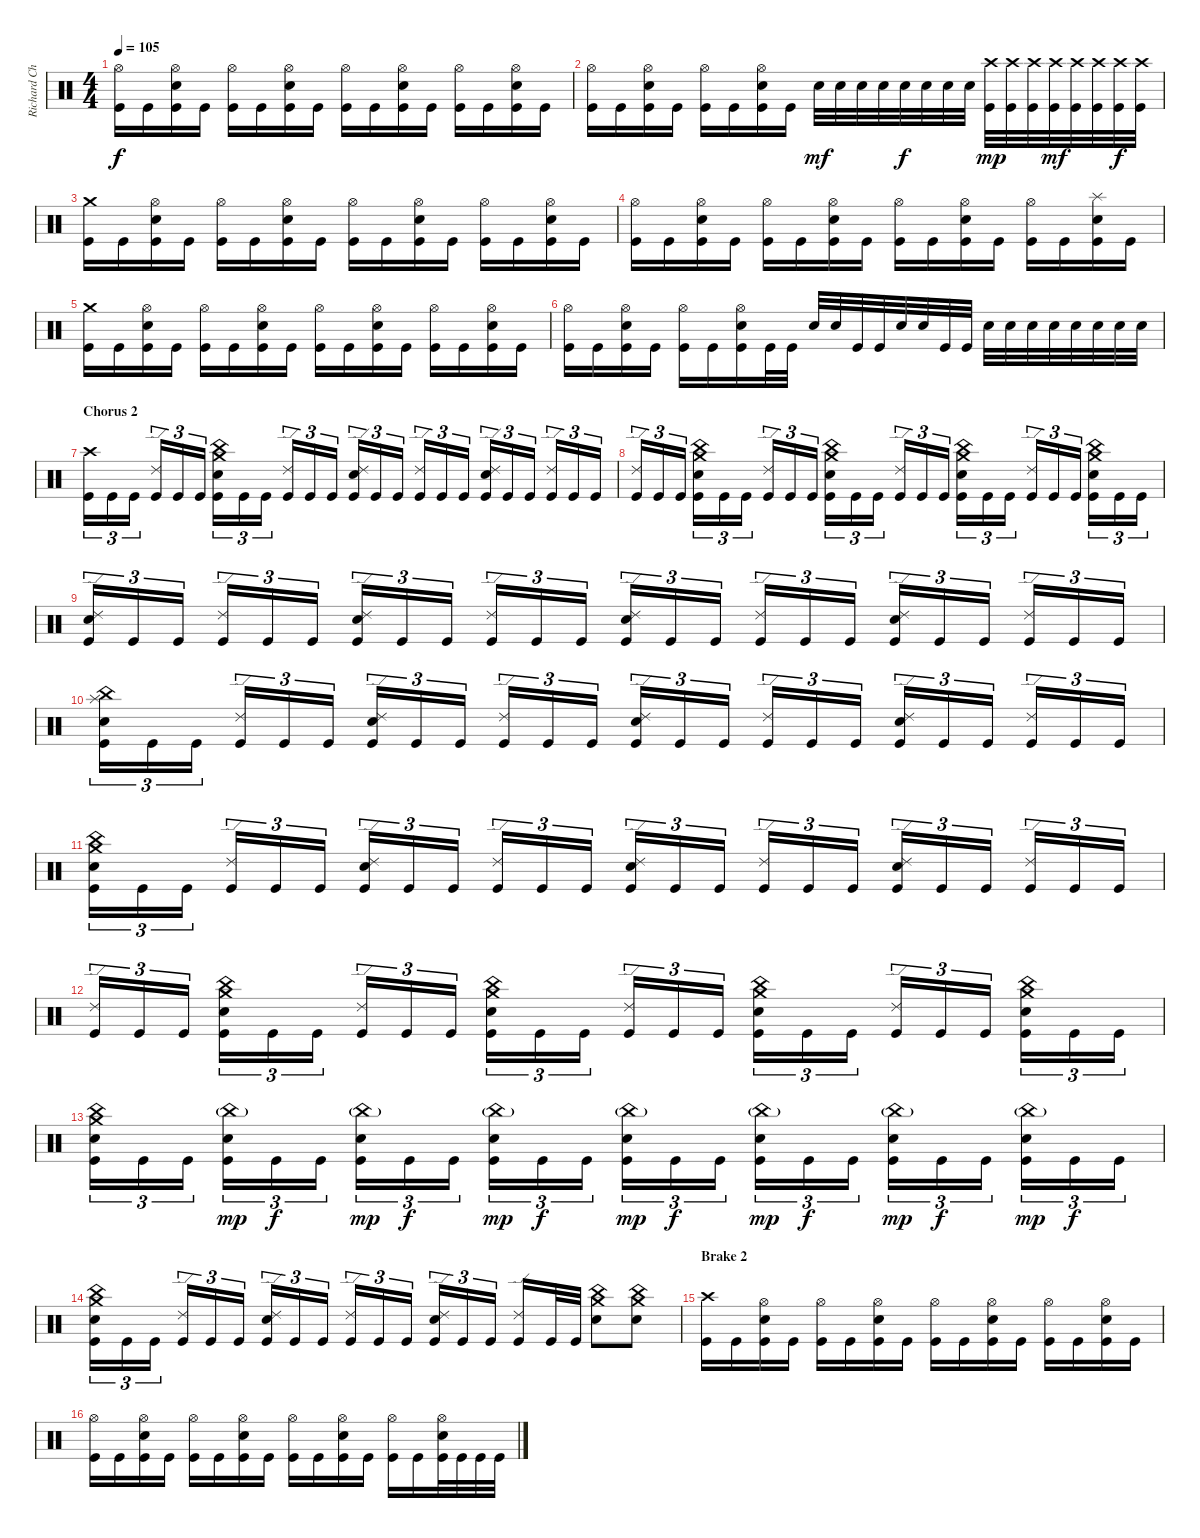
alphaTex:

\track ("Richard Christy" "Richard Ch") {instrument percussion}
\staff {score}
\articulation defaults
\ts (4 4)
\tempo 105
\clef neutral
\ks c
("Hi-Hat (open)" "Kick (hit)").16{dy f} "Kick (hit)".16 ("Hi-Hat (open)" "Electric Snare (hit)" "Kick (hit)").16 "Kick (hit)".16 ("Hi-Hat (open)" "Kick (hit)").16 "Kick (hit)".16 ("Hi-Hat (open)" "Electric Snare (hit)" "Kick (hit)").16 "Kick (hit)".16 ("Hi-Hat (open)" "Kick (hit)").16 "Kick (hit)".16 ("Hi-Hat (open)" "Electric Snare (hit)" "Kick (hit)").16 "Kick (hit)".16 ("Hi-Hat (open)" "Kick (hit)").16 "Kick (hit)".16 ("Hi-Hat (open)" "Electric Snare (hit)" "Kick (hit)").16 "Kick (hit)".16 |
("Hi-Hat (open)" "Kick (hit)").16 "Kick (hit)".16 ("Hi-Hat (open)" "Electric Snare (hit)" "Kick (hit)").16 "Kick (hit)".16 ("Hi-Hat (open)" "Kick (hit)").16 "Kick (hit)".16 ("Hi-Hat (open)" "Electric Snare (hit)" "Kick (hit)").16 "Kick (hit)".16 "Electric Snare (hit)".32{dy mf} "Electric Snare (hit)".32 "Electric Snare (hit)".32 "Electric Snare (hit)".32 "Electric Snare (hit)".32{dy f} "Electric Snare (hit)".32 "Electric Snare (hit)".32 "Electric Snare (hit)".32 ("Crash high (hit)" "Kick (hit)").32{dy mp} ("Crash high (hit)" "Kick (hit)").32 ("Crash high (hit)" "Kick (hit)").32 ("Crash high (hit)" "Kick (hit)").32{dy mf} ("Crash high (hit)" "Kick (hit)").32 ("Crash high (hit)" "Kick (hit)").32 ("Crash high (hit)" "Kick (hit)").32{dy f} ("Crash high (hit)" "Kick (hit)").32 |
("Crash medium (hit)" "Kick (hit)").16 "Kick (hit)".16 ("Hi-Hat (open)" "Electric Snare (hit)" "Kick (hit)").16 "Kick (hit)".16 ("Hi-Hat (open)" "Kick (hit)").16 "Kick (hit)".16 ("Hi-Hat (open)" "Electric Snare (hit)" "Kick (hit)").16 "Kick (hit)".16 ("Hi-Hat (open)" "Kick (hit)").16 "Kick (hit)".16 ("Hi-Hat (open)" "Electric Snare (hit)" "Kick (hit)").16 "Kick (hit)".16 ("Hi-Hat (open)" "Kick (hit)").16 "Kick (hit)".16 ("Hi-Hat (open)" "Electric Snare (hit)" "Kick (hit)").16 "Kick (hit)".16 |
("Hi-Hat (open)" "Kick (hit)").16 "Kick (hit)".16 ("Hi-Hat (open)" "Electric Snare (hit)" "Kick (hit)").16 "Kick (hit)".16 ("Hi-Hat (open)" "Kick (hit)").16 "Kick (hit)".16 ("Hi-Hat (open)" "Electric Snare (hit)" "Kick (hit)").16 "Kick (hit)".16 ("Hi-Hat (open)" "Kick (hit)").16 "Kick (hit)".16 ("Hi-Hat (open)" "Electric Snare (hit)" "Kick (hit)").16 "Kick (hit)".16 ("Hi-Hat (open)" "Kick (hit)").16 "Kick (hit)".16 ("Splash (hit)" "Electric Snare (hit)" "Kick (hit)").16 "Kick (hit)".16 |
("Crash medium (hit)" "Kick (hit)").16 "Kick (hit)".16 ("Hi-Hat (open)" "Electric Snare (hit)" "Kick (hit)").16 "Kick (hit)".16 ("Hi-Hat (open)" "Kick (hit)").16 "Kick (hit)".16 ("Hi-Hat (open)" "Electric Snare (hit)" "Kick (hit)").16 "Kick (hit)".16 ("Hi-Hat (open)" "Kick (hit)").16 "Kick (hit)".16 ("Hi-Hat (open)" "Electric Snare (hit)" "Kick (hit)").16 "Kick (hit)".16 ("Hi-Hat (open)" "Kick (hit)").16 "Kick (hit)".16 ("Hi-Hat (open)" "Electric Snare (hit)" "Kick (hit)").16 "Kick (hit)".16 |
("Hi-Hat (open)" "Kick (hit)").16 "Kick (hit)".16 ("Hi-Hat (open)" "Electric Snare (hit)" "Kick (hit)").16 "Kick (hit)".16 ("Hi-Hat (open)" "Kick (hit)").16 "Kick (hit)".16 ("Hi-Hat (open)" "Electric Snare (hit)" "Kick (hit)").16 "Kick (hit)".32 "Kick (hit)".32 "Electric Snare (hit)".32 "Electric Snare (hit)".32 "Kick (hit)".32 "Kick (hit)".32 "Electric Snare (hit)".32 "Electric Snare (hit)".32 "Kick (hit)".32 "Kick (hit)".32 "Electric Snare (hit)".32 "Electric Snare (hit)".32 "Electric Snare (hit)".32 "Electric Snare (hit)".32 "Electric Snare (hit)".32 "Electric Snare (hit)".32 "Electric Snare (hit)".32 "Electric Snare (hit)".32 |
\section ("" "Chorus 2")
("Crash high (hit)" "Kick (hit)").16{tu (3 2)} "Kick (hit)".16{tu (3 2)} "Kick (hit)".16{tu (3 2)} ("Ride (edge) 2" "Kick (hit)").16{tu (3 2)} "Kick (hit)".16{tu (3 2)} "Kick (hit)".16{tu (3 2)} ("Crash medium (hit)" "China (hit)" "Electric Snare (hit)" "Kick (hit)").16{tu (3 2)} "Kick (hit)".16{tu (3 2)} "Kick (hit)".16{tu (3 2)} ("Ride (edge) 2" "Kick (hit)").16{tu (3 2)} "Kick (hit)".16{tu (3 2)} "Kick (hit)".16{tu (3 2)} ("Ride (edge) 2" "Electric Snare (hit)" "Kick (hit)").16{tu (3 2)} "Kick (hit)".16{tu (3 2)} "Kick (hit)".16{tu (3 2)} ("Ride (edge) 2" "Kick (hit)").16{tu (3 2)} "Kick (hit)".16{tu (3 2)} "Kick (hit)".16{tu (3 2)} ("Ride (edge) 2" "Electric Snare (hit)" "Kick (hit)").16{tu (3 2)} "Kick (hit)".16{tu (3 2)} "Kick (hit)".16{tu (3 2)} ("Ride (edge) 2" "Kick (hit)").16{tu (3 2)} "Kick (hit)".16{tu (3 2)} "Kick (hit)".16{tu (3 2)} |
("Ride (edge) 2" "Kick (hit)").16{tu (3 2)} "Kick (hit)".16{tu (3 2)} "Kick (hit)".16{tu (3 2)} ("Crash medium (hit)" "China (hit)" "Electric Snare (hit)" "Kick (hit)").16{tu (3 2)} "Kick (hit)".16{tu (3 2)} "Kick (hit)".16{tu (3 2)} ("Ride (edge) 2" "Kick (hit)").16{tu (3 2)} "Kick (hit)".16{tu (3 2)} "Kick (hit)".16{tu (3 2)} ("Crash medium (hit)" "China (hit)" "Electric Snare (hit)" "Kick (hit)").16{tu (3 2)} "Kick (hit)".16{tu (3 2)} "Kick (hit)".16{tu (3 2)} ("Ride (edge) 2" "Kick (hit)").16{tu (3 2)} "Kick (hit)".16{tu (3 2)} "Kick (hit)".16{tu (3 2)} ("Crash medium (hit)" "China (hit)" "Electric Snare (hit)" "Kick (hit)").16{tu (3 2)} "Kick (hit)".16{tu (3 2)} "Kick (hit)".16{tu (3 2)} ("Ride (edge) 2" "Kick (hit)").16{tu (3 2)} "Kick (hit)".16{tu (3 2)} "Kick (hit)".16{tu (3 2)} ("Crash medium (hit)" "China (hit)" "Electric Snare (hit)" "Kick (hit)").16{tu (3 2)} "Kick (hit)".16{tu (3 2)} "Kick (hit)".16{tu (3 2)} |
("Ride (edge) 2" "Electric Snare (hit)" "Kick (hit)").16{tu (3 2)} "Kick (hit)".16{tu (3 2)} "Kick (hit)".16{tu (3 2)} ("Ride (edge) 2" "Kick (hit)").16{tu (3 2)} "Kick (hit)".16{tu (3 2)} "Kick (hit)".16{tu (3 2)} ("Ride (edge) 2" "Electric Snare (hit)" "Kick (hit)").16{tu (3 2)} "Kick (hit)".16{tu (3 2)} "Kick (hit)".16{tu (3 2)} ("Ride (edge) 2" "Kick (hit)").16{tu (3 2)} "Kick (hit)".16{tu (3 2)} "Kick (hit)".16{tu (3 2)} ("Ride (edge) 2" "Electric Snare (hit)" "Kick (hit)").16{tu (3 2)} "Kick (hit)".16{tu (3 2)} "Kick (hit)".16{tu (3 2)} ("Ride (edge) 2" "Kick (hit)").16{tu (3 2)} "Kick (hit)".16{tu (3 2)} "Kick (hit)".16{tu (3 2)} ("Ride (edge) 2" "Electric Snare (hit)" "Kick (hit)").16{tu (3 2)} "Kick (hit)".16{tu (3 2)} "Kick (hit)".16{tu (3 2)} ("Ride (edge) 2" "Kick (hit)").16{tu (3 2)} "Kick (hit)".16{tu (3 2)} "Kick (hit)".16{tu (3 2)} |
("Splash (hit)" "China (hit)" "Electric Snare (hit)" "Kick (hit)").16{tu (3 2)} "Kick (hit)".16{tu (3 2)} "Kick (hit)".16{tu (3 2)} ("Ride (edge) 2" "Kick (hit)").16{tu (3 2)} "Kick (hit)".16{tu (3 2)} "Kick (hit)".16{tu (3 2)} ("Ride (edge) 2" "Electric Snare (hit)" "Kick (hit)").16{tu (3 2)} "Kick (hit)".16{tu (3 2)} "Kick (hit)".16{tu (3 2)} ("Ride (edge) 2" "Kick (hit)").16{tu (3 2)} "Kick (hit)".16{tu (3 2)} "Kick (hit)".16{tu (3 2)} ("Ride (edge) 2" "Electric Snare (hit)" "Kick (hit)").16{tu (3 2)} "Kick (hit)".16{tu (3 2)} "Kick (hit)".16{tu (3 2)} ("Ride (edge) 2" "Kick (hit)").16{tu (3 2)} "Kick (hit)".16{tu (3 2)} "Kick (hit)".16{tu (3 2)} ("Ride (edge) 2" "Electric Snare (hit)" "Kick (hit)").16{tu (3 2)} "Kick (hit)".16{tu (3 2)} "Kick (hit)".16{tu (3 2)} ("Ride (edge) 2" "Kick (hit)").16{tu (3 2)} "Kick (hit)".16{tu (3 2)} "Kick (hit)".16{tu (3 2)} |
("Crash medium (hit)" "China (hit)" "Electric Snare (hit)" "Kick (hit)").16{tu (3 2)} "Kick (hit)".16{tu (3 2)} "Kick (hit)".16{tu (3 2)} ("Ride (edge) 2" "Kick (hit)").16{tu (3 2)} "Kick (hit)".16{tu (3 2)} "Kick (hit)".16{tu (3 2)} ("Ride (edge) 2" "Electric Snare (hit)" "Kick (hit)").16{tu (3 2)} "Kick (hit)".16{tu (3 2)} "Kick (hit)".16{tu (3 2)} ("Ride (edge) 2" "Kick (hit)").16{tu (3 2)} "Kick (hit)".16{tu (3 2)} "Kick (hit)".16{tu (3 2)} ("Ride (edge) 2" "Electric Snare (hit)" "Kick (hit)").16{tu (3 2)} "Kick (hit)".16{tu (3 2)} "Kick (hit)".16{tu (3 2)} ("Ride (edge) 2" "Kick (hit)").16{tu (3 2)} "Kick (hit)".16{tu (3 2)} "Kick (hit)".16{tu (3 2)} ("Ride (edge) 2" "Electric Snare (hit)" "Kick (hit)").16{tu (3 2)} "Kick (hit)".16{tu (3 2)} "Kick (hit)".16{tu (3 2)} ("Ride (edge) 2" "Kick (hit)").16{tu (3 2)} "Kick (hit)".16{tu (3 2)} "Kick (hit)".16{tu (3 2)} |
("Ride (edge) 2" "Kick (hit)").16{tu (3 2)} "Kick (hit)".16{tu (3 2)} "Kick (hit)".16{tu (3 2)} ("Crash medium (hit)" "China (hit)" "Electric Snare (hit)" "Kick (hit)").16{tu (3 2)} "Kick (hit)".16{tu (3 2)} "Kick (hit)".16{tu (3 2)} ("Ride (edge) 2" "Kick (hit)").16{tu (3 2)} "Kick (hit)".16{tu (3 2)} "Kick (hit)".16{tu (3 2)} ("Crash medium (hit)" "China (hit)" "Electric Snare (hit)" "Kick (hit)").16{tu (3 2)} "Kick (hit)".16{tu (3 2)} "Kick (hit)".16{tu (3 2)} ("Ride (edge) 2" "Kick (hit)").16{tu (3 2)} "Kick (hit)".16{tu (3 2)} "Kick (hit)".16{tu (3 2)} ("Crash medium (hit)" "China (hit)" "Electric Snare (hit)" "Kick (hit)").16{tu (3 2)} "Kick (hit)".16{tu (3 2)} "Kick (hit)".16{tu (3 2)} ("Ride (edge) 2" "Kick (hit)").16{tu (3 2)} "Kick (hit)".16{tu (3 2)} "Kick (hit)".16{tu (3 2)} ("Crash medium (hit)" "China (hit)" "Electric Snare (hit)" "Kick (hit)").16{tu (3 2)} "Kick (hit)".16{tu (3 2)} "Kick (hit)".16{tu (3 2)} |
("Crash medium (hit)" "China (hit)" "Electric Snare (hit)" "Kick (hit)").16{tu (3 2)} "Kick (hit)".16{tu (3 2)} "Kick (hit)".16{tu (3 2)} ("China (hit)"{g} "Electric Snare (hit)" "Kick (hit)").16{tu (3 2) dy mp} "Kick (hit)".16{tu (3 2) dy f} "Kick (hit)".16{tu (3 2)} ("China (hit)"{g} "Electric Snare (hit)" "Kick (hit)").16{tu (3 2) dy mp} "Kick (hit)".16{tu (3 2) dy f} "Kick (hit)".16{tu (3 2)} ("China (hit)"{g} "Electric Snare (hit)" "Kick (hit)").16{tu (3 2) dy mp} "Kick (hit)".16{tu (3 2) dy f} "Kick (hit)".16{tu (3 2)} ("China (hit)"{g} "Electric Snare (hit)" "Kick (hit)").16{tu (3 2) dy mp} "Kick (hit)".16{tu (3 2) dy f} "Kick (hit)".16{tu (3 2)} ("China (hit)"{g} "Electric Snare (hit)" "Kick (hit)").16{tu (3 2) dy mp} "Kick (hit)".16{tu (3 2) dy f} "Kick (hit)".16{tu (3 2)} ("China (hit)"{g} "Electric Snare (hit)" "Kick (hit)").16{tu (3 2) dy mp} "Kick (hit)".16{tu (3 2) dy f} "Kick (hit)".16{tu (3 2)} ("China (hit)"{g} "Electric Snare (hit)" "Kick (hit)").16{tu (3 2) dy mp} "Kick (hit)".16{tu (3 2) dy f} "Kick (hit)".16{tu (3 2)} |
("Crash medium (hit)" "China (hit)" "Electric Snare (hit)" "Kick (hit)").16{tu (3 2)} "Kick (hit)".16{tu (3 2)} "Kick (hit)".16{tu (3 2)} ("Ride (edge) 2" "Kick (hit)").16{tu (3 2)} "Kick (hit)".16{tu (3 2)} "Kick (hit)".16{tu (3 2)} ("Ride (edge) 2" "Electric Snare (hit)" "Kick (hit)").16{tu (3 2)} "Kick (hit)".16{tu (3 2)} "Kick (hit)".16{tu (3 2)} ("Ride (edge) 2" "Kick (hit)").16{tu (3 2)} "Kick (hit)".16{tu (3 2)} "Kick (hit)".16{tu (3 2)} ("Ride (edge) 2" "Electric Snare (hit)" "Kick (hit)").16{tu (3 2)} "Kick (hit)".16{tu (3 2)} "Kick (hit)".16{tu (3 2)} ("Ride (edge) 2" "Kick (hit)").16 "Kick (hit)".32 "Kick (hit)".32 ("Crash medium (hit)" "China (hit)" "Electric Snare (hit)").8 ("Crash medium (hit)" "China (hit)" "Electric Snare (hit)").8 |
\section ("" "Brake 2")
("Crash high (hit)" "Kick (hit)").16 "Kick (hit)".16 ("Hi-Hat (open)" "Electric Snare (hit)" "Kick (hit)").16 "Kick (hit)".16 ("Hi-Hat (open)" "Kick (hit)").16 "Kick (hit)".16 ("Hi-Hat (open)" "Electric Snare (hit)" "Kick (hit)").16 "Kick (hit)".16 ("Hi-Hat (open)" "Kick (hit)").16 "Kick (hit)".16 ("Hi-Hat (open)" "Electric Snare (hit)" "Kick (hit)").16 "Kick (hit)".16 ("Hi-Hat (open)" "Kick (hit)").16 "Kick (hit)".16 ("Hi-Hat (open)" "Electric Snare (hit)" "Kick (hit)").16 "Kick (hit)".16 |
("Hi-Hat (open)" "Kick (hit)").16 "Kick (hit)".16 ("Hi-Hat (open)" "Electric Snare (hit)" "Kick (hit)").16 "Kick (hit)".16 ("Hi-Hat (open)" "Kick (hit)").16 "Kick (hit)".16 ("Hi-Hat (open)" "Electric Snare (hit)" "Kick (hit)").16 "Kick (hit)".16 ("Hi-Hat (open)" "Kick (hit)").16 "Kick (hit)".16 ("Hi-Hat (open)" "Electric Snare (hit)" "Kick (hit)").16 "Kick (hit)".16 ("Hi-Hat (open)" "Kick (hit)").16 "Kick (hit)".16 ("Hi-Hat (open)" "Electric Snare (hit)" "Kick (hit)").32 "Kick (hit)".32 "Kick (hit)".32 "Kick (hit)".32
